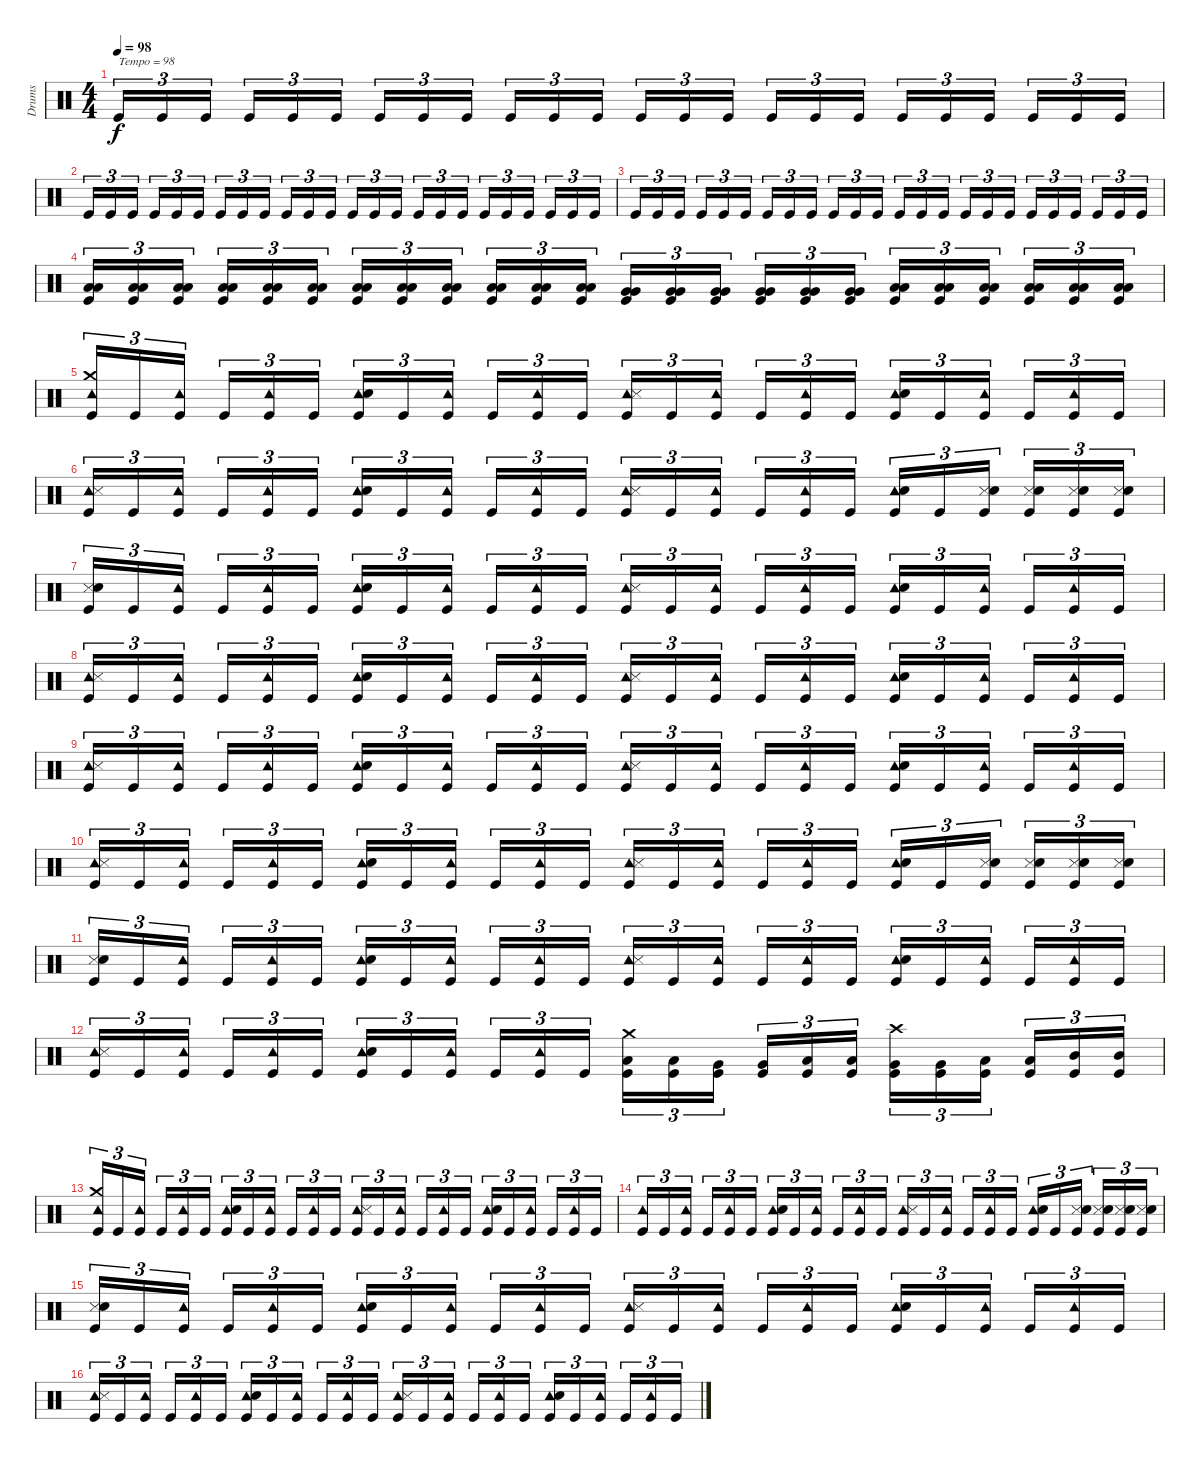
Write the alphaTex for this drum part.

\track ("Drums" "Drums") {instrument percussion}
\staff {score}
\articulation defaults
\ts (4 4)
\tempo 98
\clef neutral
\ks c "Kick (hit)".16{tu (3 2) txt "Tempo = 98" dy f volume 14} "Kick (hit)".16{tu (3 2)} "Kick (hit)".16{tu (3 2)} "Kick (hit)".16{tu (3 2)} "Kick (hit)".16{tu (3 2)} "Kick (hit)".16{tu (3 2)} "Kick (hit)".16{tu (3 2)} "Kick (hit)".16{tu (3 2)} "Kick (hit)".16{tu (3 2)} "Kick (hit)".16{tu (3 2)} "Kick (hit)".16{tu (3 2)} "Kick (hit)".16{tu (3 2)} "Kick (hit)".16{tu (3 2)} "Kick (hit)".16{tu (3 2)} "Kick (hit)".16{tu (3 2)} "Kick (hit)".16{tu (3 2)} "Kick (hit)".16{tu (3 2)} "Kick (hit)".16{tu (3 2)} "Kick (hit)".16{tu (3 2)} "Kick (hit)".16{tu (3 2)} "Kick (hit)".16{tu (3 2)} "Kick (hit)".16{tu (3 2)} "Kick (hit)".16{tu (3 2)} "Kick (hit)".16{tu (3 2)}
|
"Kick (hit)".16{tu (3 2)} "Kick (hit)".16{tu (3 2)} "Kick (hit)".16{tu (3 2)} "Kick (hit)".16{tu (3 2)} "Kick (hit)".16{tu (3 2)} "Kick (hit)".16{tu (3 2)} "Kick (hit)".16{tu (3 2)} "Kick (hit)".16{tu (3 2)} "Kick (hit)".16{tu (3 2)} "Kick (hit)".16{tu (3 2)} "Kick (hit)".16{tu (3 2)} "Kick (hit)".16{tu (3 2)} "Kick (hit)".16{tu (3 2)} "Kick (hit)".16{tu (3 2)} "Kick (hit)".16{tu (3 2)} "Kick (hit)".16{tu (3 2)} "Kick (hit)".16{tu (3 2)} "Kick (hit)".16{tu (3 2)} "Kick (hit)".16{tu (3 2)} "Kick (hit)".16{tu (3 2)} "Kick (hit)".16{tu (3 2)} "Kick (hit)".16{tu (3 2)} "Kick (hit)".16{tu (3 2)} "Kick (hit)".16{tu (3 2)} |
"Kick (hit)".16{tu (3 2)} "Kick (hit)".16{tu (3 2)} "Kick (hit)".16{tu (3 2)} "Kick (hit)".16{tu (3 2)} "Kick (hit)".16{tu (3 2)} "Kick (hit)".16{tu (3 2)} "Kick (hit)".16{tu (3 2)} "Kick (hit)".16{tu (3 2)} "Kick (hit)".16{tu (3 2)} "Kick (hit)".16{tu (3 2)} "Kick (hit)".16{tu (3 2)} "Kick (hit)".16{tu (3 2)} "Kick (hit)".16{tu (3 2)} "Kick (hit)".16{tu (3 2)} "Kick (hit)".16{tu (3 2)} "Kick (hit)".16{tu (3 2)} "Kick (hit)".16{tu (3 2)} "Kick (hit)".16{tu (3 2)} "Kick (hit)".16{tu (3 2)} "Kick (hit)".16{tu (3 2)} "Kick (hit)".16{tu (3 2)} "Kick (hit)".16{tu (3 2)} "Kick (hit)".16{tu (3 2)} "Kick (hit)".16{tu (3 2)} |
("Low Floor Tom (hit)" "Low Floor Tom (hit)" "Kick (hit)").16{tu (3 2)} ("Low Floor Tom (hit)" "Low Floor Tom (hit)" "Kick (hit)").16{tu (3 2)} ("Low Floor Tom (hit)" "Low Floor Tom (hit)" "Kick (hit)").16{tu (3 2)} ("Low Floor Tom (hit)" "Low Floor Tom (hit)" "Kick (hit)").16{tu (3 2)} ("Low Floor Tom (hit)" "Low Floor Tom (hit)" "Kick (hit)").16{tu (3 2)} ("Low Floor Tom (hit)" "Low Floor Tom (hit)" "Kick (hit)").16{tu (3 2)} ("Low Floor Tom (hit)" "Low Floor Tom (hit)" "Kick (hit)").16{tu (3 2)} ("Low Floor Tom (hit)" "Low Floor Tom (hit)" "Kick (hit)").16{tu (3 2)} ("Low Floor Tom (hit)" "Low Floor Tom (hit)" "Kick (hit)").16{tu (3 2)} ("Low Floor Tom (hit)" "Low Floor Tom (hit)" "Kick (hit)").16{tu (3 2)} ("Low Floor Tom (hit)" "Low Floor Tom (hit)" "Kick (hit)").16{tu (3 2)} ("Low Floor Tom (hit)" "Low Floor Tom (hit)" "Kick (hit)").16{tu (3 2)} ("Very Low Tom (hit)" "Very Low Tom (hit)" "Kick (hit)").16{tu (3 2)} ("Very Low Tom (hit)" "Very Low Tom (hit)" "Kick (hit)").16{tu (3 2)} ("Very Low Tom (hit)" "Very Low Tom (hit)" "Kick (hit)").16{tu (3 2)} ("Very Low Tom (hit)" "Very Low Tom (hit)" "Kick (hit)").16{tu (3 2)} ("Very Low Tom (hit)" "Very Low Tom (hit)" "Kick (hit)").16{tu (3 2)} ("Very Low Tom (hit)" "Very Low Tom (hit)" "Kick (hit)").16{tu (3 2)} ("Low Tom (hit)" "Low Tom (hit)" "Kick (hit)").16{tu (3 2)} ("Low Tom (hit)" "Low Tom (hit)" "Kick (hit)").16{tu (3 2)} ("Low Tom (hit)" "Low Tom (hit)" "Kick (hit)").16{tu (3 2)} ("Low Tom (hit)" "Low Tom (hit)" "Kick (hit)").16{tu (3 2)} ("Low Tom (hit)" "Low Tom (hit)" "Kick (hit)").16{tu (3 2)} ("Low Tom (hit)" "Low Tom (hit)" "Kick (hit)").16{tu (3 2)} |
("Crash medium (hit)" "Tambourine (hit)" "Kick (hit)").16{tu (3 2) volume 16} "Kick (hit)".16{tu (3 2)} ("Tambourine (hit)" "Kick (hit)").16{tu (3 2)} "Kick (hit)".16{tu (3 2)} ("Tambourine (hit)" "Kick (hit)").16{tu (3 2)} "Kick (hit)".16{tu (3 2)} ("Tambourine (hit)" "Snare (hit) 2" "Kick (hit)").16{tu (3 2)} "Kick (hit)".16{tu (3 2)} ("Tambourine (hit)" "Kick (hit)").16{tu (3 2)} "Kick (hit)".16{tu (3 2)} ("Tambourine (hit)" "Kick (hit)").16{tu (3 2)} "Kick (hit)".16{tu (3 2)} ("Tambourine (hit)" "Snare (side stick) 3" "Kick (hit)").16{tu (3 2)} "Kick (hit)".16{tu (3 2)} ("Tambourine (hit)" "Kick (hit)").16{tu (3 2)} "Kick (hit)".16{tu (3 2)} ("Tambourine (hit)" "Kick (hit)").16{tu (3 2)} "Kick (hit)".16{tu (3 2)} ("Tambourine (hit)" "Snare (hit) 2" "Kick (hit)").16{tu (3 2)} "Kick (hit)".16{tu (3 2)} ("Tambourine (hit)" "Kick (hit)").16{tu (3 2)} "Kick (hit)".16{tu (3 2)} ("Tambourine (hit)" "Kick (hit)").16{tu (3 2)} "Kick (hit)".16{tu (3 2)} |
("Tambourine (hit)" "Snare (side stick) 3" "Kick (hit)").16{tu (3 2)} "Kick (hit)".16{tu (3 2)} ("Tambourine (hit)" "Kick (hit)").16{tu (3 2)} "Kick (hit)".16{tu (3 2)} ("Tambourine (hit)" "Kick (hit)").16{tu (3 2)} "Kick (hit)".16{tu (3 2)} ("Tambourine (hit)" "Snare (hit) 2" "Kick (hit)").16{tu (3 2)} "Kick (hit)".16{tu (3 2)} ("Tambourine (hit)" "Kick (hit)").16{tu (3 2)} "Kick (hit)".16{tu (3 2)} ("Tambourine (hit)" "Kick (hit)").16{tu (3 2)} "Kick (hit)".16{tu (3 2)} ("Tambourine (hit)" "Snare (side stick) 3" "Kick (hit)").16{tu (3 2)} "Kick (hit)".16{tu (3 2)} ("Tambourine (hit)" "Kick (hit)").16{tu (3 2)} "Kick (hit)".16{tu (3 2)} ("Tambourine (hit)" "Kick (hit)").16{tu (3 2)} "Kick (hit)".16{tu (3 2)} ("Tambourine (hit)" "Snare (hit) 2" "Kick (hit)").16{tu (3 2)} "Kick (hit)".16{tu (3 2)} ("Snare (side stick) 3" "Snare (hit) 2" "Kick (hit)").16{tu (3 2)} ("Snare (side stick) 3" "Snare (hit) 2" "Kick (hit)").16{tu (3 2)} ("Snare (side stick) 3" "Snare (hit) 2" "Kick (hit)").16{tu (3 2)} ("Snare (side stick) 3" "Snare (hit) 2" "Kick (hit)").16{tu (3 2)} |
("Snare (side stick) 3" "Snare (hit) 2" "Kick (hit)").16{tu (3 2)} "Kick (hit)".16{tu (3 2)} ("Tambourine (hit)" "Kick (hit)").16{tu (3 2)} "Kick (hit)".16{tu (3 2)} ("Tambourine (hit)" "Kick (hit)").16{tu (3 2)} "Kick (hit)".16{tu (3 2)} ("Tambourine (hit)" "Snare (hit) 2" "Kick (hit)").16{tu (3 2)} "Kick (hit)".16{tu (3 2)} ("Tambourine (hit)" "Kick (hit)").16{tu (3 2)} "Kick (hit)".16{tu (3 2)} ("Tambourine (hit)" "Kick (hit)").16{tu (3 2)} "Kick (hit)".16{tu (3 2)} ("Tambourine (hit)" "Snare (side stick) 3" "Kick (hit)").16{tu (3 2)} "Kick (hit)".16{tu (3 2)} ("Tambourine (hit)" "Kick (hit)").16{tu (3 2)} "Kick (hit)".16{tu (3 2)} ("Tambourine (hit)" "Kick (hit)").16{tu (3 2)} "Kick (hit)".16{tu (3 2)} ("Tambourine (hit)" "Snare (hit) 2" "Kick (hit)").16{tu (3 2)} "Kick (hit)".16{tu (3 2)} ("Tambourine (hit)" "Kick (hit)").16{tu (3 2)} "Kick (hit)".16{tu (3 2)} ("Tambourine (hit)" "Kick (hit)").16{tu (3 2)} "Kick (hit)".16{tu (3 2)} |
("Tambourine (hit)" "Snare (side stick) 3" "Kick (hit)").16{tu (3 2)} "Kick (hit)".16{tu (3 2)} ("Tambourine (hit)" "Kick (hit)").16{tu (3 2)} "Kick (hit)".16{tu (3 2)} ("Tambourine (hit)" "Kick (hit)").16{tu (3 2)} "Kick (hit)".16{tu (3 2)} ("Tambourine (hit)" "Snare (hit) 2" "Kick (hit)").16{tu (3 2)} "Kick (hit)".16{tu (3 2)} ("Tambourine (hit)" "Kick (hit)").16{tu (3 2)} "Kick (hit)".16{tu (3 2)} ("Tambourine (hit)" "Kick (hit)").16{tu (3 2)} "Kick (hit)".16{tu (3 2)} ("Tambourine (hit)" "Snare (side stick) 3" "Kick (hit)").16{tu (3 2)} "Kick (hit)".16{tu (3 2)} ("Tambourine (hit)" "Kick (hit)").16{tu (3 2)} "Kick (hit)".16{tu (3 2)} ("Tambourine (hit)" "Kick (hit)").16{tu (3 2)} "Kick (hit)".16{tu (3 2)} ("Tambourine (hit)" "Snare (hit) 2" "Kick (hit)").16{tu (3 2)} "Kick (hit)".16{tu (3 2)} ("Tambourine (hit)" "Kick (hit)").16{tu (3 2)} "Kick (hit)".16{tu (3 2)} ("Tambourine (hit)" "Kick (hit)").16{tu (3 2)} "Kick (hit)".16{tu (3 2)} |
("Tambourine (hit)" "Snare (side stick) 3" "Kick (hit)").16{tu (3 2)} "Kick (hit)".16{tu (3 2)} ("Tambourine (hit)" "Kick (hit)").16{tu (3 2)} "Kick (hit)".16{tu (3 2)} ("Tambourine (hit)" "Kick (hit)").16{tu (3 2)} "Kick (hit)".16{tu (3 2)} ("Tambourine (hit)" "Snare (hit) 2" "Kick (hit)").16{tu (3 2)} "Kick (hit)".16{tu (3 2)} ("Tambourine (hit)" "Kick (hit)").16{tu (3 2)} "Kick (hit)".16{tu (3 2)} ("Tambourine (hit)" "Kick (hit)").16{tu (3 2)} "Kick (hit)".16{tu (3 2)} ("Tambourine (hit)" "Snare (side stick) 3" "Kick (hit)").16{tu (3 2)} "Kick (hit)".16{tu (3 2)} ("Tambourine (hit)" "Kick (hit)").16{tu (3 2)} "Kick (hit)".16{tu (3 2)} ("Tambourine (hit)" "Kick (hit)").16{tu (3 2)} "Kick (hit)".16{tu (3 2)} ("Tambourine (hit)" "Snare (hit) 2" "Kick (hit)").16{tu (3 2)} "Kick (hit)".16{tu (3 2)} ("Tambourine (hit)" "Kick (hit)").16{tu (3 2)} "Kick (hit)".16{tu (3 2)} ("Tambourine (hit)" "Kick (hit)").16{tu (3 2)} "Kick (hit)".16{tu (3 2)} |
("Tambourine (hit)" "Snare (side stick) 3" "Kick (hit)").16{tu (3 2)} "Kick (hit)".16{tu (3 2)} ("Tambourine (hit)" "Kick (hit)").16{tu (3 2)} "Kick (hit)".16{tu (3 2)} ("Tambourine (hit)" "Kick (hit)").16{tu (3 2)} "Kick (hit)".16{tu (3 2)} ("Tambourine (hit)" "Snare (hit) 2" "Kick (hit)").16{tu (3 2)} "Kick (hit)".16{tu (3 2)} ("Tambourine (hit)" "Kick (hit)").16{tu (3 2)} "Kick (hit)".16{tu (3 2)} ("Tambourine (hit)" "Kick (hit)").16{tu (3 2)} "Kick (hit)".16{tu (3 2)} ("Tambourine (hit)" "Snare (side stick) 3" "Kick (hit)").16{tu (3 2)} "Kick (hit)".16{tu (3 2)} ("Tambourine (hit)" "Kick (hit)").16{tu (3 2)} "Kick (hit)".16{tu (3 2)} ("Tambourine (hit)" "Kick (hit)").16{tu (3 2)} "Kick (hit)".16{tu (3 2)} ("Tambourine (hit)" "Snare (hit) 2" "Kick (hit)").16{tu (3 2)} "Kick (hit)".16{tu (3 2)} ("Snare (side stick) 3" "Snare (hit) 2" "Kick (hit)").16{tu (3 2)} ("Snare (side stick) 3" "Snare (hit) 2" "Kick (hit)").16{tu (3 2)} ("Snare (side stick) 3" "Snare (hit) 2" "Kick (hit)").16{tu (3 2)} ("Snare (side stick) 3" "Snare (hit) 2" "Kick (hit)").16{tu (3 2)} |
("Snare (side stick) 3" "Snare (hit) 2" "Kick (hit)").16{tu (3 2)} "Kick (hit)".16{tu (3 2)} ("Tambourine (hit)" "Kick (hit)").16{tu (3 2)} "Kick (hit)".16{tu (3 2)} ("Tambourine (hit)" "Kick (hit)").16{tu (3 2)} "Kick (hit)".16{tu (3 2)} ("Tambourine (hit)" "Snare (hit) 2" "Kick (hit)").16{tu (3 2)} "Kick (hit)".16{tu (3 2)} ("Tambourine (hit)" "Kick (hit)").16{tu (3 2)} "Kick (hit)".16{tu (3 2)} ("Tambourine (hit)" "Kick (hit)").16{tu (3 2)} "Kick (hit)".16{tu (3 2)} ("Tambourine (hit)" "Snare (side stick) 3" "Kick (hit)").16{tu (3 2)} "Kick (hit)".16{tu (3 2)} ("Tambourine (hit)" "Kick (hit)").16{tu (3 2)} "Kick (hit)".16{tu (3 2)} ("Tambourine (hit)" "Kick (hit)").16{tu (3 2)} "Kick (hit)".16{tu (3 2)} ("Tambourine (hit)" "Snare (hit) 2" "Kick (hit)").16{tu (3 2)} "Kick (hit)".16{tu (3 2)} ("Tambourine (hit)" "Kick (hit)").16{tu (3 2)} "Kick (hit)".16{tu (3 2)} ("Tambourine (hit)" "Kick (hit)").16{tu (3 2)} "Kick (hit)".16{tu (3 2)} |
("Tambourine (hit)" "Snare (side stick) 3" "Kick (hit)").16{tu (3 2)} "Kick (hit)".16{tu (3 2)} ("Tambourine (hit)" "Kick (hit)").16{tu (3 2)} "Kick (hit)".16{tu (3 2)} ("Tambourine (hit)" "Kick (hit)").16{tu (3 2)} "Kick (hit)".16{tu (3 2)} ("Tambourine (hit)" "Snare (hit) 2" "Kick (hit)").16{tu (3 2)} "Kick (hit)".16{tu (3 2)} ("Tambourine (hit)" "Kick (hit)").16{tu (3 2)} "Kick (hit)".16{tu (3 2)} ("Tambourine (hit)" "Kick (hit)").16{tu (3 2)} "Kick (hit)".16{tu (3 2)} ("Crash medium (hit)" "Low Floor Tom (hit)" "Kick (hit)").16{tu (3 2)} ("Low Floor Tom (hit)" "Kick (hit)").16{tu (3 2)} ("Very Low Tom (hit)" "Kick (hit)").16{tu (3 2)} ("Very Low Tom (hit)" "Kick (hit)").16{tu (3 2)} ("Low Tom (hit)" "Kick (hit)").16{tu (3 2)} ("Low Tom (hit)" "Kick (hit)").16{tu (3 2)} ("Crash high (hit)" "Very Low Tom (hit)" "Kick (hit)").16{tu (3 2)} ("Very Low Tom (hit)" "Kick (hit)").16{tu (3 2)} ("Low Tom (hit)" "Kick (hit)").16{tu (3 2)} ("Low Tom (hit)" "Kick (hit)").16{tu (3 2)} ("Mid Tom (hit)" "Kick (hit)").16{tu (3 2)} ("Mid Tom (hit)" "Kick (hit)").16{tu (3 2)} |
("Crash medium (hit)" "Tambourine (hit)" "Kick (hit)").16{tu (3 2)} "Kick (hit)".16{tu (3 2)} ("Tambourine (hit)" "Kick (hit)").16{tu (3 2)} "Kick (hit)".16{tu (3 2)} ("Tambourine (hit)" "Kick (hit)").16{tu (3 2)} "Kick (hit)".16{tu (3 2)} ("Tambourine (hit)" "Snare (hit) 2" "Kick (hit)").16{tu (3 2)} "Kick (hit)".16{tu (3 2)} ("Tambourine (hit)" "Kick (hit)").16{tu (3 2)} "Kick (hit)".16{tu (3 2)} ("Tambourine (hit)" "Kick (hit)").16{tu (3 2)} "Kick (hit)".16{tu (3 2)} ("Tambourine (hit)" "Snare (side stick) 3" "Kick (hit)").16{tu (3 2)} "Kick (hit)".16{tu (3 2)} ("Tambourine (hit)" "Kick (hit)").16{tu (3 2)} "Kick (hit)".16{tu (3 2)} ("Tambourine (hit)" "Kick (hit)").16{tu (3 2)} "Kick (hit)".16{tu (3 2)} ("Tambourine (hit)" "Snare (hit) 2" "Kick (hit)").16{tu (3 2)} "Kick (hit)".16{tu (3 2)} ("Tambourine (hit)" "Kick (hit)").16{tu (3 2)} "Kick (hit)".16{tu (3 2)} ("Tambourine (hit)" "Kick (hit)").16{tu (3 2)} "Kick (hit)".16{tu (3 2)} |
("Tambourine (hit)" "Kick (hit)").16{tu (3 2)} "Kick (hit)".16{tu (3 2)} ("Tambourine (hit)" "Kick (hit)").16{tu (3 2)} "Kick (hit)".16{tu (3 2)} ("Tambourine (hit)" "Kick (hit)").16{tu (3 2)} "Kick (hit)".16{tu (3 2)} ("Tambourine (hit)" "Snare (hit) 2" "Kick (hit)").16{tu (3 2)} "Kick (hit)".16{tu (3 2)} ("Tambourine (hit)" "Kick (hit)").16{tu (3 2)} "Kick (hit)".16{tu (3 2)} ("Tambourine (hit)" "Kick (hit)").16{tu (3 2)} "Kick (hit)".16{tu (3 2)} ("Tambourine (hit)" "Snare (side stick) 3" "Kick (hit)").16{tu (3 2)} "Kick (hit)".16{tu (3 2)} ("Tambourine (hit)" "Kick (hit)").16{tu (3 2)} "Kick (hit)".16{tu (3 2)} ("Tambourine (hit)" "Kick (hit)").16{tu (3 2)} "Kick (hit)".16{tu (3 2)} ("Tambourine (hit)" "Snare (hit) 2" "Kick (hit)").16{tu (3 2)} "Kick (hit)".16{tu (3 2)} ("Snare (side stick) 3" "Snare (hit) 2" "Kick (hit)").16{tu (3 2)} ("Snare (side stick) 3" "Snare (hit) 2" "Kick (hit)").16{tu (3 2)} ("Snare (side stick) 3" "Snare (hit) 2" "Kick (hit)").16{tu (3 2)} ("Snare (side stick) 3" "Snare (hit) 2" "Kick (hit)").16{tu (3 2)} |
("Snare (side stick) 3" "Snare (hit) 2" "Kick (hit)").16{tu (3 2)} "Kick (hit)".16{tu (3 2)} ("Tambourine (hit)" "Kick (hit)").16{tu (3 2)} "Kick (hit)".16{tu (3 2)} ("Tambourine (hit)" "Kick (hit)").16{tu (3 2)} "Kick (hit)".16{tu (3 2)} ("Tambourine (hit)" "Snare (hit) 2" "Kick (hit)").16{tu (3 2)} "Kick (hit)".16{tu (3 2)} ("Tambourine (hit)" "Kick (hit)").16{tu (3 2)} "Kick (hit)".16{tu (3 2)} ("Tambourine (hit)" "Kick (hit)").16{tu (3 2)} "Kick (hit)".16{tu (3 2)} ("Tambourine (hit)" "Snare (side stick) 3" "Kick (hit)").16{tu (3 2)} "Kick (hit)".16{tu (3 2)} ("Tambourine (hit)" "Kick (hit)").16{tu (3 2)} "Kick (hit)".16{tu (3 2)} ("Tambourine (hit)" "Kick (hit)").16{tu (3 2)} "Kick (hit)".16{tu (3 2)} ("Tambourine (hit)" "Snare (hit) 2" "Kick (hit)").16{tu (3 2)} "Kick (hit)".16{tu (3 2)} ("Tambourine (hit)" "Kick (hit)").16{tu (3 2)} "Kick (hit)".16{tu (3 2)} ("Tambourine (hit)" "Kick (hit)").16{tu (3 2)} "Kick (hit)".16{tu (3 2)} |
("Tambourine (hit)" "Snare (side stick) 3" "Kick (hit)").16{tu (3 2)} "Kick (hit)".16{tu (3 2)} ("Tambourine (hit)" "Kick (hit)").16{tu (3 2)} "Kick (hit)".16{tu (3 2)} ("Tambourine (hit)" "Kick (hit)").16{tu (3 2)} "Kick (hit)".16{tu (3 2)} ("Tambourine (hit)" "Snare (hit) 2" "Kick (hit)").16{tu (3 2)} "Kick (hit)".16{tu (3 2)} ("Tambourine (hit)" "Kick (hit)").16{tu (3 2)} "Kick (hit)".16{tu (3 2)} ("Tambourine (hit)" "Kick (hit)").16{tu (3 2)} "Kick (hit)".16{tu (3 2)} ("Tambourine (hit)" "Snare (side stick) 3" "Kick (hit)").16{tu (3 2)} "Kick (hit)".16{tu (3 2)} ("Tambourine (hit)" "Kick (hit)").16{tu (3 2)} "Kick (hit)".16{tu (3 2)} ("Tambourine (hit)" "Kick (hit)").16{tu (3 2)} "Kick (hit)".16{tu (3 2)} ("Tambourine (hit)" "Snare (hit) 2" "Kick (hit)").16{tu (3 2)} "Kick (hit)".16{tu (3 2)} ("Tambourine (hit)" "Kick (hit)").16{tu (3 2)} "Kick (hit)".16{tu (3 2)} ("Tambourine (hit)" "Kick (hit)").16{tu (3 2)} "Kick (hit)".16{tu (3 2)}
